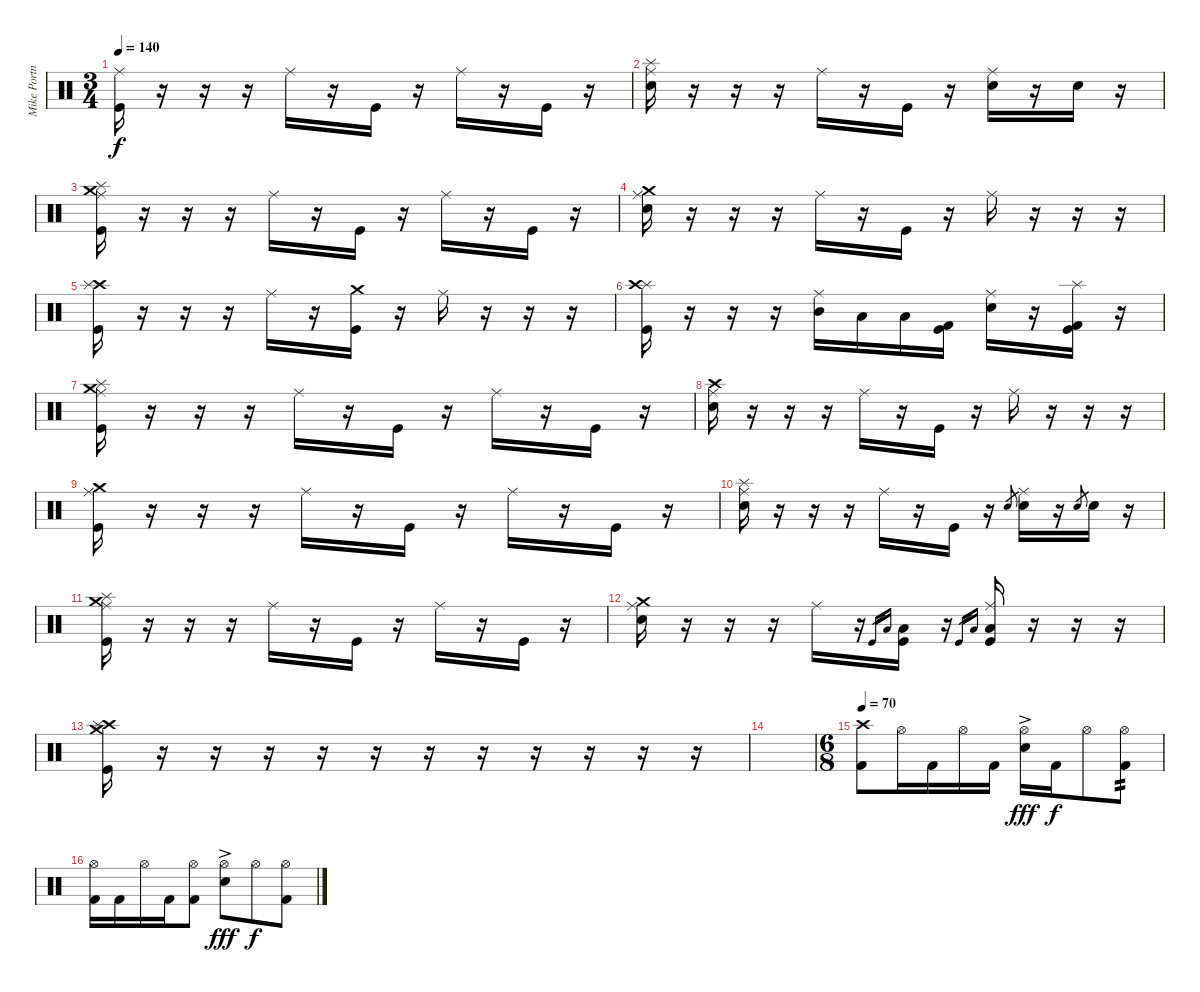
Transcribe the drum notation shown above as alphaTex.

\track ("Mike Portnoy" "Mike Portn") {instrument percussion}
\staff {score}
\articulation defaults
\ts (3 4)
\tempo 140
\clef neutral
\ks c
("Kick (hit)" "Ride (middle)").16{dy f} r.16 r.16 r.16 "Ride (middle)".16 r.16 "Kick (hit)".16 r.16 "Ride (middle)".16 r.16 "Kick (hit)".16 r.16 |
("Electric Snare (hit)" "Splash (hit)" "Ride (middle)").16 r.16 r.16 r.16 "Ride (middle)".16 r.16 "Kick (hit)".16 r.16 ("Electric Snare (hit)" "Ride (middle)").16 r.16 "Electric Snare (hit)".16 r.16 |
("Kick (hit)" "Crash medium (hit)" "Splash (hit)" "Ride (middle)").16 r.16 r.16 r.16 "Ride (middle)".16 r.16 "Kick (hit)".16 r.16 "Ride (middle)".16 r.16 "Kick (hit)".16 r.16 |
("Electric Snare (hit)" "Crash medium (hit)" "Ride (middle)").16 r.16 r.16 r.16 "Ride (middle)".16 r.16 "Kick (hit)".16 r.16 "Ride (middle)".16 r.16 r.16 r.16 |
("Kick (hit)" "Crash high (hit)" "Splash (hit)").16 r.16 r.16 r.16 "Ride (middle)".16 r.16 ("Crash medium (hit)" "Kick (hit)").16 r.16 "Ride (middle)".16 r.16 r.16 r.16 |
("Splash (hit)" "Crash high (hit)" "Kick (hit)").16 r.16 r.16 r.16 ("Mid Tom (hit)" "Ride (middle)").16 "Low Tom (hit)".16 "Low Floor Tom (hit)".16 ("Kick (hit) 2" "Kick (hit)").16 ("Electric Snare (hit)" "Ride (middle)").16 r.16 ("Kick (hit)" "Kick (hit) 2" "Splash (hit)").16 r.16 |
("Kick (hit)" "Crash medium (hit)" "Splash (hit)" "Ride (middle)").16 r.16 r.16 r.16 "Ride (middle)".16 r.16 "Kick (hit)".16 r.16 "Ride (middle)".16 r.16 "Kick (hit)".16 r.16 |
("Electric Snare (hit)" "Crash high (hit)" "Ride (middle)").16 r.16 r.16 r.16 "Ride (middle)".16 r.16 "Kick (hit)".16 r.16 "Ride (middle)".16 r.16 r.16 r.16 |
("Kick (hit)" "Crash medium (hit)" "Ride (middle)").16 r.16 r.16 r.16 "Ride (middle)".16 r.16 "Kick (hit)".16 r.16 "Ride (middle)".16 r.16 "Kick (hit)".16 r.16 |
("Electric Snare (hit)" "Splash (hit)" "Ride (middle)").16 r.16 r.16 r.16 "Ride (middle)".16 r.16 "Kick (hit)".16 r.16 "Electric Snare (hit)".8{gr} ("Electric Snare (hit)" "Ride (middle)").16 r.16 "Electric Snare (hit)".8{gr} "Electric Snare (hit)".16 r.16 |
("Kick (hit)" "Crash medium (hit)" "Splash (hit)" "Ride (middle)").16 r.16 r.16 r.16 "Ride (middle)".16 r.16 "Kick (hit)".16 r.16 "Ride (middle)".16 r.16 "Kick (hit)".16 r.16 |
("Electric Snare (hit)" "Crash medium (hit)" "Ride (middle)").16 r.16 r.16 r.16 "Ride (middle)".16 r.16 "Kick (hit)".16{gr} "Low Floor Tom (hit)".16{gr} ("Kick (hit)" "Low Floor Tom (hit)").16 r.16 "Kick (hit)".16{gr} "Low Floor Tom (hit)".16{gr} ("Kick (hit)" "Low Floor Tom (hit)" "Ride (middle)").16 r.16 r.16 r.16 |
("Kick (hit)" "Crash medium (hit)" "Crash high (hit)" "Splash (hit)").16 r.16 r.16 r.16 r.16 r.16 r.16 r.16 r.16 r.16 r.16 r.16 |
|
\ts (6 8)
\tempo 70
("Crash high (hit)" "Kick (hit) 2").8 "Hi-Hat (open)".16 "Kick (hit) 2".16 "Hi-Hat (open)".16 "Kick (hit) 2".16 ("Hi-Hat (open)" "Snare (hit) 2"{ac}).16{dy fff} "Kick (hit) 2".16{dy f} "Hi-Hat (open)".8 ("Hi-Hat (open)" "Kick (hit) 2").8{tp 2} |
("Hi-Hat (open)" "Kick (hit) 2").16 "Kick (hit) 2".16 "Hi-Hat (open)".16 "Kick (hit) 2".16 ("Hi-Hat (open)" "Kick (hit) 2").8 ("Hi-Hat (open)" "Snare (hit) 2"{ac}).8{dy fff} "Hi-Hat (open)".8{dy f} ("Hi-Hat (open)" "Kick (hit) 2").8
